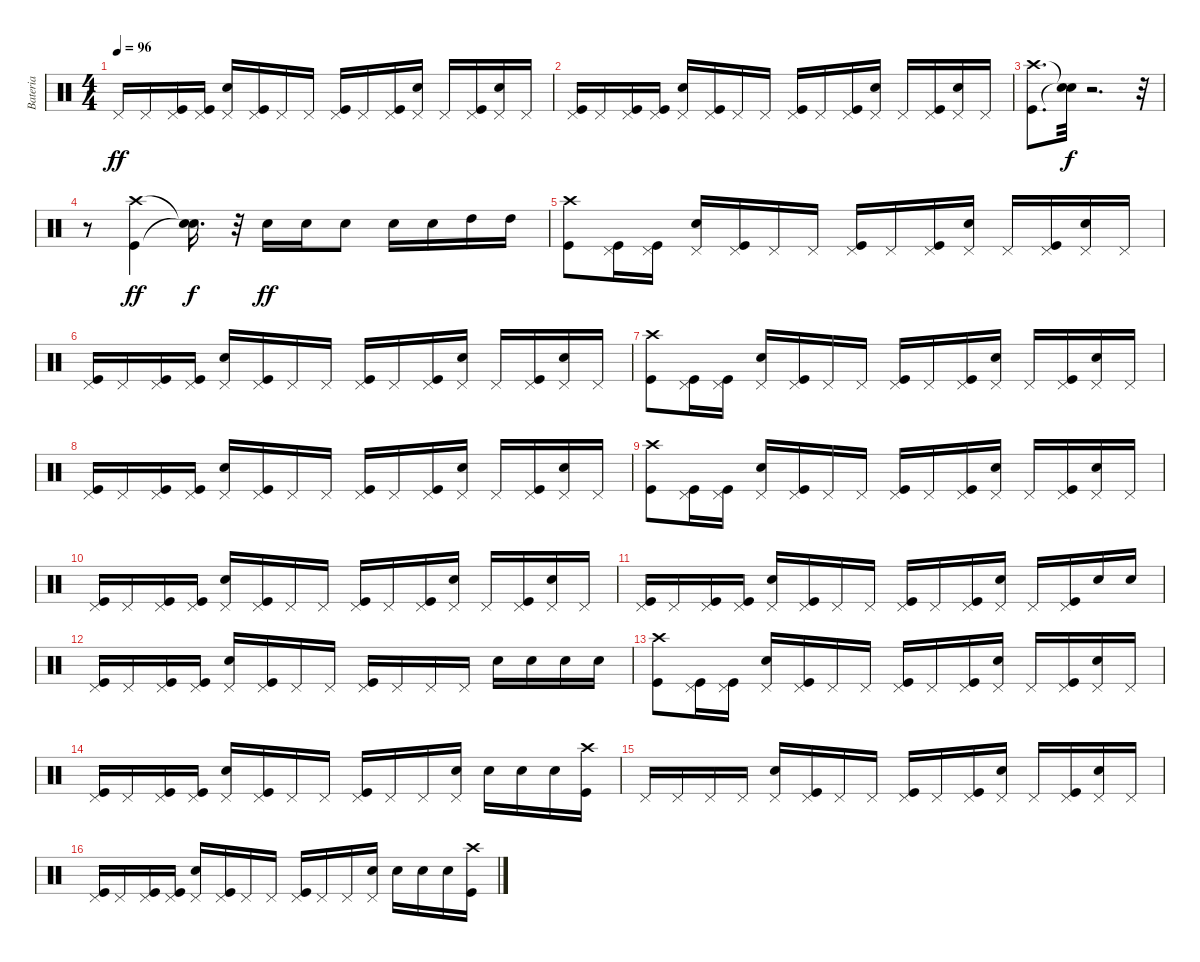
\track ("Bateria" "Bateria") {instrument percussion}
\staff {score}
\articulation defaults
\ts (4 4)
\tempo 96
\clef neutral
\ks c "Pedal Hi-Hat (hit)".16{dy ff} "Pedal Hi-Hat (hit)".16
("Kick (hit)" "Pedal Hi-Hat (hit)").16 ("Kick (hit)" "Pedal Hi-Hat (hit)").16 ("Snare (hit) 2" "Pedal Hi-Hat (hit)").16 ("Kick (hit)" "Pedal Hi-Hat (hit)").16 "Pedal Hi-Hat (hit)".16 "Pedal Hi-Hat (hit)".16 ("Kick (hit)" "Pedal Hi-Hat (hit)").16 "Pedal Hi-Hat (hit)".16 ("Kick (hit)" "Pedal Hi-Hat (hit)").16 ("Snare (hit) 2" "Pedal Hi-Hat (hit)").16 "Pedal Hi-Hat (hit)".16 ("Kick (hit)" "Pedal Hi-Hat (hit)").16 ("Snare (hit) 2" "Pedal Hi-Hat (hit)").16 "Pedal Hi-Hat (hit)".16 |
("Kick (hit)" "Pedal Hi-Hat (hit)").16 "Pedal Hi-Hat (hit)".16 ("Kick (hit)" "Pedal Hi-Hat (hit)").16 ("Kick (hit)" "Pedal Hi-Hat (hit)").16 ("Snare (hit) 2" "Pedal Hi-Hat (hit)").16 ("Kick (hit)" "Pedal Hi-Hat (hit)").16 "Pedal Hi-Hat (hit)".16 "Pedal Hi-Hat (hit)".16 ("Kick (hit)" "Pedal Hi-Hat (hit)").16 "Pedal Hi-Hat (hit)".16 ("Kick (hit)" "Pedal Hi-Hat (hit)").16 ("Snare (hit) 2" "Pedal Hi-Hat (hit)").16 "Pedal Hi-Hat (hit)".16 ("Kick (hit)" "Pedal Hi-Hat (hit)").16 ("Snare (hit) 2" "Pedal Hi-Hat (hit)").16 "Pedal Hi-Hat (hit)".16 |
("Kick (hit)" "Crash high (hit)").8{d} ("Snare (hit)"{t} "Snare (hit)"{t}).32{dy f} r.2{d} r.32 |
r.8 ("Kick (hit)" "Crash high (hit)").4{dy ff} ("Snare (hit)"{t} "Snare (hit)"{t}).16{d dy f} r.32 "Snare (hit) 2".16{dy ff} "Snare (hit) 2".16 "Snare (hit) 2".8 "Snare (hit) 2".16 "Snare (hit) 2".16 "High Tom (hit)".16 "High Tom (hit)".16 |
("Kick (hit)" "Crash high (hit)").8 ("Kick (hit)" "Pedal Hi-Hat (hit)").16 ("Kick (hit)" "Pedal Hi-Hat (hit)").16 ("Snare (hit) 2" "Pedal Hi-Hat (hit)").16 ("Kick (hit)" "Pedal Hi-Hat (hit)").16 "Pedal Hi-Hat (hit)".16 "Pedal Hi-Hat (hit)".16 ("Kick (hit)" "Pedal Hi-Hat (hit)").16 "Pedal Hi-Hat (hit)".16 ("Kick (hit)" "Pedal Hi-Hat (hit)").16 ("Snare (hit) 2" "Pedal Hi-Hat (hit)").16 "Pedal Hi-Hat (hit)".16 ("Kick (hit)" "Pedal Hi-Hat (hit)").16 ("Snare (hit) 2" "Pedal Hi-Hat (hit)").16 "Pedal Hi-Hat (hit)".16 |
("Kick (hit)" "Pedal Hi-Hat (hit)").16 "Pedal Hi-Hat (hit)".16 ("Kick (hit)" "Pedal Hi-Hat (hit)").16 ("Kick (hit)" "Pedal Hi-Hat (hit)").16 ("Snare (hit) 2" "Pedal Hi-Hat (hit)").16 ("Kick (hit)" "Pedal Hi-Hat (hit)").16 "Pedal Hi-Hat (hit)".16 "Pedal Hi-Hat (hit)".16 ("Kick (hit)" "Pedal Hi-Hat (hit)").16 "Pedal Hi-Hat (hit)".16 ("Kick (hit)" "Pedal Hi-Hat (hit)").16 ("Snare (hit) 2" "Pedal Hi-Hat (hit)").16 "Pedal Hi-Hat (hit)".16 ("Kick (hit)" "Pedal Hi-Hat (hit)").16 ("Snare (hit) 2" "Pedal Hi-Hat (hit)").16 "Pedal Hi-Hat (hit)".16 |
("Kick (hit)" "Crash high (hit)").8 ("Kick (hit)" "Pedal Hi-Hat (hit)").16 ("Kick (hit)" "Pedal Hi-Hat (hit)").16 ("Snare (hit) 2" "Pedal Hi-Hat (hit)").16 ("Kick (hit)" "Pedal Hi-Hat (hit)").16 "Pedal Hi-Hat (hit)".16 "Pedal Hi-Hat (hit)".16 ("Kick (hit)" "Pedal Hi-Hat (hit)").16 "Pedal Hi-Hat (hit)".16 ("Kick (hit)" "Pedal Hi-Hat (hit)").16 ("Snare (hit) 2" "Pedal Hi-Hat (hit)").16 "Pedal Hi-Hat (hit)".16 ("Kick (hit)" "Pedal Hi-Hat (hit)").16 ("Snare (hit) 2" "Pedal Hi-Hat (hit)").16 "Pedal Hi-Hat (hit)".16 |
("Kick (hit)" "Pedal Hi-Hat (hit)").16 "Pedal Hi-Hat (hit)".16 ("Kick (hit)" "Pedal Hi-Hat (hit)").16 ("Kick (hit)" "Pedal Hi-Hat (hit)").16 ("Snare (hit) 2" "Pedal Hi-Hat (hit)").16 ("Kick (hit)" "Pedal Hi-Hat (hit)").16 "Pedal Hi-Hat (hit)".16 "Pedal Hi-Hat (hit)".16 ("Kick (hit)" "Pedal Hi-Hat (hit)").16 "Pedal Hi-Hat (hit)".16 ("Kick (hit)" "Pedal Hi-Hat (hit)").16 ("Snare (hit) 2" "Pedal Hi-Hat (hit)").16 "Pedal Hi-Hat (hit)".16 ("Kick (hit)" "Pedal Hi-Hat (hit)").16 ("Snare (hit) 2" "Pedal Hi-Hat (hit)").16 "Pedal Hi-Hat (hit)".16 |
("Kick (hit)" "Crash high (hit)").8 ("Kick (hit)" "Pedal Hi-Hat (hit)").16 ("Kick (hit)" "Pedal Hi-Hat (hit)").16 ("Snare (hit) 2" "Pedal Hi-Hat (hit)").16 ("Kick (hit)" "Pedal Hi-Hat (hit)").16 "Pedal Hi-Hat (hit)".16 "Pedal Hi-Hat (hit)".16 ("Kick (hit)" "Pedal Hi-Hat (hit)").16 "Pedal Hi-Hat (hit)".16 ("Kick (hit)" "Pedal Hi-Hat (hit)").16 ("Snare (hit) 2" "Pedal Hi-Hat (hit)").16 "Pedal Hi-Hat (hit)".16 ("Kick (hit)" "Pedal Hi-Hat (hit)").16 ("Snare (hit) 2" "Pedal Hi-Hat (hit)").16 "Pedal Hi-Hat (hit)".16 |
("Kick (hit)" "Pedal Hi-Hat (hit)").16 "Pedal Hi-Hat (hit)".16 ("Kick (hit)" "Pedal Hi-Hat (hit)").16 ("Kick (hit)" "Pedal Hi-Hat (hit)").16 ("Snare (hit) 2" "Pedal Hi-Hat (hit)").16 ("Kick (hit)" "Pedal Hi-Hat (hit)").16 "Pedal Hi-Hat (hit)".16 "Pedal Hi-Hat (hit)".16 ("Kick (hit)" "Pedal Hi-Hat (hit)").16 "Pedal Hi-Hat (hit)".16 ("Kick (hit)" "Pedal Hi-Hat (hit)").16 ("Snare (hit) 2" "Pedal Hi-Hat (hit)").16 "Pedal Hi-Hat (hit)".16 ("Kick (hit)" "Pedal Hi-Hat (hit)").16 ("Snare (hit) 2" "Pedal Hi-Hat (hit)").16 "Pedal Hi-Hat (hit)".16 |
("Kick (hit)" "Pedal Hi-Hat (hit)").16 "Pedal Hi-Hat (hit)".16 ("Kick (hit)" "Pedal Hi-Hat (hit)").16 ("Kick (hit)" "Pedal Hi-Hat (hit)").16 ("Snare (hit) 2" "Pedal Hi-Hat (hit)").16 ("Kick (hit)" "Pedal Hi-Hat (hit)").16 "Pedal Hi-Hat (hit)".16 "Pedal Hi-Hat (hit)".16 ("Kick (hit)" "Pedal Hi-Hat (hit)").16 "Pedal Hi-Hat (hit)".16 ("Kick (hit)" "Pedal Hi-Hat (hit)").16 ("Snare (hit) 2" "Pedal Hi-Hat (hit)").16 "Pedal Hi-Hat (hit)".16 ("Kick (hit)" "Pedal Hi-Hat (hit)").16 "Snare (hit) 2".16 "Snare (hit) 2".16 |
("Kick (hit)" "Pedal Hi-Hat (hit)").16 "Pedal Hi-Hat (hit)".16 ("Kick (hit)" "Pedal Hi-Hat (hit)").16 ("Kick (hit)" "Pedal Hi-Hat (hit)").16 ("Snare (hit) 2" "Pedal Hi-Hat (hit)").16 ("Kick (hit)" "Pedal Hi-Hat (hit)").16 "Pedal Hi-Hat (hit)".16 "Pedal Hi-Hat (hit)".16 ("Kick (hit)" "Pedal Hi-Hat (hit)").16 "Pedal Hi-Hat (hit)".16 "Pedal Hi-Hat (hit)".16 "Pedal Hi-Hat (hit)".16 "Snare (hit) 2".16 "Snare (hit) 2".16 "Snare (hit) 2".16 "Snare (hit) 2".16 |
("Kick (hit)" "Crash high (hit)").8 ("Kick (hit)" "Pedal Hi-Hat (hit)").16 ("Kick (hit)" "Pedal Hi-Hat (hit)").16 ("Snare (hit) 2" "Pedal Hi-Hat (hit)").16 ("Kick (hit)" "Pedal Hi-Hat (hit)").16 "Pedal Hi-Hat (hit)".16 "Pedal Hi-Hat (hit)".16 ("Kick (hit)" "Pedal Hi-Hat (hit)").16 "Pedal Hi-Hat (hit)".16 ("Kick (hit)" "Pedal Hi-Hat (hit)").16 ("Snare (hit) 2" "Pedal Hi-Hat (hit)").16 "Pedal Hi-Hat (hit)".16 ("Kick (hit)" "Pedal Hi-Hat (hit)").16 ("Snare (hit) 2" "Pedal Hi-Hat (hit)").16 "Pedal Hi-Hat (hit)".16 |
("Kick (hit)" "Pedal Hi-Hat (hit)").16 "Pedal Hi-Hat (hit)".16 ("Kick (hit)" "Pedal Hi-Hat (hit)").16 ("Kick (hit)" "Pedal Hi-Hat (hit)").16 ("Snare (hit) 2" "Pedal Hi-Hat (hit)").16 ("Kick (hit)" "Pedal Hi-Hat (hit)").16 "Pedal Hi-Hat (hit)".16 "Pedal Hi-Hat (hit)".16 ("Kick (hit)" "Pedal Hi-Hat (hit)").16 "Pedal Hi-Hat (hit)".16 "Pedal Hi-Hat (hit)".16 ("Snare (hit) 2" "Pedal Hi-Hat (hit)").16 "Snare (hit) 2".16 "Snare (hit) 2".16 "Snare (hit) 2".16 ("Kick (hit)" "Crash high (hit)").16 |
"Pedal Hi-Hat (hit)".16 "Pedal Hi-Hat (hit)".16 "Pedal Hi-Hat (hit)".16 "Pedal Hi-Hat (hit)".16 ("Snare (hit) 2" "Pedal Hi-Hat (hit)").16 ("Kick (hit)" "Pedal Hi-Hat (hit)").16 "Pedal Hi-Hat (hit)".16 "Pedal Hi-Hat (hit)".16 ("Kick (hit)" "Pedal Hi-Hat (hit)").16 "Pedal Hi-Hat (hit)".16 ("Kick (hit)" "Pedal Hi-Hat (hit)").16 ("Snare (hit) 2" "Pedal Hi-Hat (hit)").16 "Pedal Hi-Hat (hit)".16 ("Kick (hit)" "Pedal Hi-Hat (hit)").16 ("Snare (hit) 2" "Pedal Hi-Hat (hit)").16 "Pedal Hi-Hat (hit)".16 |
("Kick (hit)" "Pedal Hi-Hat (hit)").16 "Pedal Hi-Hat (hit)".16 ("Kick (hit)" "Pedal Hi-Hat (hit)").16 ("Kick (hit)" "Pedal Hi-Hat (hit)").16 ("Snare (hit) 2" "Pedal Hi-Hat (hit)").16 ("Kick (hit)" "Pedal Hi-Hat (hit)").16 "Pedal Hi-Hat (hit)".16 "Pedal Hi-Hat (hit)".16 ("Kick (hit)" "Pedal Hi-Hat (hit)").16 "Pedal Hi-Hat (hit)".16 "Pedal Hi-Hat (hit)".16 ("Snare (hit) 2" "Pedal Hi-Hat (hit)").16 "Snare (hit) 2".16 "Snare (hit) 2".16 "Snare (hit) 2".16 ("Kick (hit)" "Crash high (hit)").16
